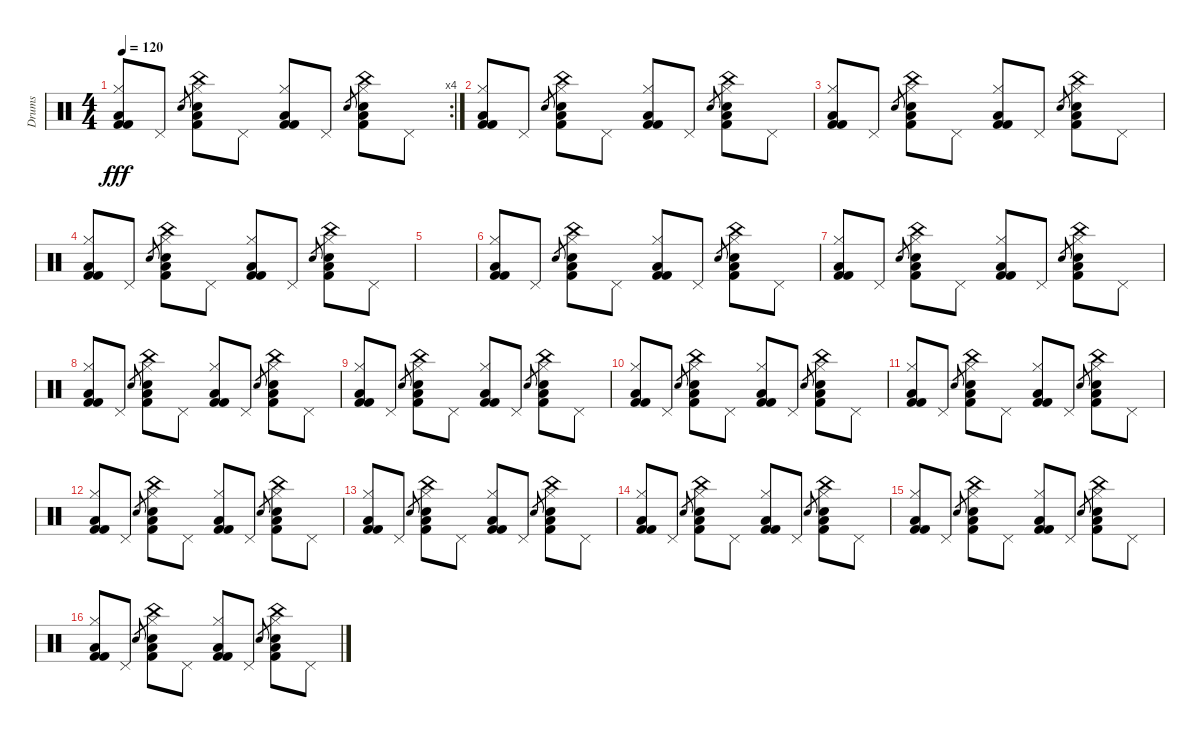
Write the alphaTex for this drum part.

\track ("Drums" "Drums") {instrument percussion}
\staff {score}
\articulation defaults
\rc 4
\ts (4 4)
\tempo 120
\clef neutral
\ks c
("Kick (hit) 2" "Hi-Hat (closed)" "Low Floor Tom (hit)" "Kick (hit) 2").8{dy fff} "Pedal Hi-Hat (hit)".8 "Hand Clap (hit)".8{gr} ("Kick (hit) 2" "Hi-Hat (closed)" "Electric Snare (hit)" "China (hit)" "Low Floor Tom (hit)").8 "Pedal Hi-Hat (hit)".8 ("Kick (hit) 2" "Hi-Hat (closed)" "Low Floor Tom (hit)" "Kick (hit) 2").8 "Pedal Hi-Hat (hit)".8 "Hand Clap (hit)".8{gr} ("Kick (hit) 2" "Hi-Hat (closed)" "Electric Snare (hit)" "China (hit)" "Low Floor Tom (hit)").8 "Pedal Hi-Hat (hit)".8 |
("Kick (hit) 2" "Hi-Hat (closed)" "Low Floor Tom (hit)" "Kick (hit) 2").8 "Pedal Hi-Hat (hit)".8 "Hand Clap (hit)".8{gr} ("Kick (hit) 2" "Hi-Hat (closed)" "Electric Snare (hit)" "China (hit)" "Low Floor Tom (hit)").8 "Pedal Hi-Hat (hit)".8 ("Kick (hit) 2" "Hi-Hat (closed)" "Low Floor Tom (hit)" "Kick (hit) 2").8 "Pedal Hi-Hat (hit)".8 "Hand Clap (hit)".8{gr} ("Kick (hit) 2" "Hi-Hat (closed)" "Electric Snare (hit)" "China (hit)" "Low Floor Tom (hit)").8 "Pedal Hi-Hat (hit)".8 |
("Kick (hit) 2" "Hi-Hat (closed)" "Low Floor Tom (hit)" "Kick (hit) 2").8 "Pedal Hi-Hat (hit)".8 "Hand Clap (hit)".8{gr} ("Kick (hit) 2" "Hi-Hat (closed)" "Electric Snare (hit)" "China (hit)" "Low Floor Tom (hit)").8 "Pedal Hi-Hat (hit)".8 ("Kick (hit) 2" "Hi-Hat (closed)" "Low Floor Tom (hit)" "Kick (hit) 2").8 "Pedal Hi-Hat (hit)".8 "Hand Clap (hit)".8{gr} ("Kick (hit) 2" "Hi-Hat (closed)" "Electric Snare (hit)" "China (hit)" "Low Floor Tom (hit)").8 "Pedal Hi-Hat (hit)".8 |
("Kick (hit) 2" "Hi-Hat (closed)" "Low Floor Tom (hit)" "Kick (hit) 2").8 "Pedal Hi-Hat (hit)".8 "Hand Clap (hit)".8{gr} ("Kick (hit) 2" "Hi-Hat (closed)" "Electric Snare (hit)" "China (hit)" "Low Floor Tom (hit)").8 "Pedal Hi-Hat (hit)".8 ("Kick (hit) 2" "Hi-Hat (closed)" "Low Floor Tom (hit)" "Kick (hit) 2").8 "Pedal Hi-Hat (hit)".8 "Hand Clap (hit)".8{gr} ("Kick (hit) 2" "Hi-Hat (closed)" "Electric Snare (hit)" "China (hit)" "Low Floor Tom (hit)").8 "Pedal Hi-Hat (hit)".8 |
|
("Kick (hit) 2" "Hi-Hat (closed)" "Low Floor Tom (hit)" "Kick (hit) 2").8 "Pedal Hi-Hat (hit)".8 "Hand Clap (hit)".8{gr} ("Kick (hit) 2" "Hi-Hat (closed)" "Electric Snare (hit)" "China (hit)" "Low Floor Tom (hit)").8 "Pedal Hi-Hat (hit)".8 ("Kick (hit) 2" "Hi-Hat (closed)" "Low Floor Tom (hit)" "Kick (hit) 2").8 "Pedal Hi-Hat (hit)".8 "Hand Clap (hit)".8{gr} ("Kick (hit) 2" "Hi-Hat (closed)" "Electric Snare (hit)" "China (hit)" "Low Floor Tom (hit)").8 "Pedal Hi-Hat (hit)".8 |
("Kick (hit) 2" "Hi-Hat (closed)" "Low Floor Tom (hit)" "Kick (hit) 2").8 "Pedal Hi-Hat (hit)".8 "Hand Clap (hit)".8{gr} ("Kick (hit) 2" "Hi-Hat (closed)" "Electric Snare (hit)" "China (hit)" "Low Floor Tom (hit)").8 "Pedal Hi-Hat (hit)".8 ("Kick (hit) 2" "Hi-Hat (closed)" "Low Floor Tom (hit)" "Kick (hit) 2").8 "Pedal Hi-Hat (hit)".8 "Hand Clap (hit)".8{gr} ("Kick (hit) 2" "Hi-Hat (closed)" "Electric Snare (hit)" "China (hit)" "Low Floor Tom (hit)").8 "Pedal Hi-Hat (hit)".8 |
("Kick (hit) 2" "Hi-Hat (closed)" "Low Floor Tom (hit)" "Kick (hit) 2").8 "Pedal Hi-Hat (hit)".8 "Hand Clap (hit)".8{gr} ("Kick (hit) 2" "Hi-Hat (closed)" "Electric Snare (hit)" "China (hit)" "Low Floor Tom (hit)").8 "Pedal Hi-Hat (hit)".8 ("Kick (hit) 2" "Hi-Hat (closed)" "Low Floor Tom (hit)" "Kick (hit) 2").8 "Pedal Hi-Hat (hit)".8 "Hand Clap (hit)".8{gr} ("Kick (hit) 2" "Hi-Hat (closed)" "Electric Snare (hit)" "China (hit)" "Low Floor Tom (hit)").8 "Pedal Hi-Hat (hit)".8 |
("Kick (hit) 2" "Hi-Hat (closed)" "Low Floor Tom (hit)" "Kick (hit) 2").8 "Pedal Hi-Hat (hit)".8 "Hand Clap (hit)".8{gr} ("Kick (hit) 2" "Hi-Hat (closed)" "Electric Snare (hit)" "China (hit)" "Low Floor Tom (hit)").8 "Pedal Hi-Hat (hit)".8 ("Kick (hit) 2" "Hi-Hat (closed)" "Low Floor Tom (hit)" "Kick (hit) 2").8 "Pedal Hi-Hat (hit)".8 "Hand Clap (hit)".8{gr} ("Kick (hit) 2" "Hi-Hat (closed)" "Electric Snare (hit)" "China (hit)" "Low Floor Tom (hit)").8 "Pedal Hi-Hat (hit)".8 |
("Kick (hit) 2" "Hi-Hat (closed)" "Low Floor Tom (hit)" "Kick (hit) 2").8 "Pedal Hi-Hat (hit)".8 "Hand Clap (hit)".8{gr} ("Kick (hit) 2" "Hi-Hat (closed)" "Electric Snare (hit)" "China (hit)" "Low Floor Tom (hit)").8 "Pedal Hi-Hat (hit)".8 ("Kick (hit) 2" "Hi-Hat (closed)" "Low Floor Tom (hit)" "Kick (hit) 2").8 "Pedal Hi-Hat (hit)".8 "Hand Clap (hit)".8{gr} ("Kick (hit) 2" "Hi-Hat (closed)" "Electric Snare (hit)" "China (hit)" "Low Floor Tom (hit)").8 "Pedal Hi-Hat (hit)".8 |
("Kick (hit) 2" "Hi-Hat (closed)" "Low Floor Tom (hit)" "Kick (hit) 2").8 "Pedal Hi-Hat (hit)".8 "Hand Clap (hit)".8{gr} ("Kick (hit) 2" "Hi-Hat (closed)" "Electric Snare (hit)" "China (hit)" "Low Floor Tom (hit)").8 "Pedal Hi-Hat (hit)".8 ("Kick (hit) 2" "Hi-Hat (closed)" "Low Floor Tom (hit)" "Kick (hit) 2").8 "Pedal Hi-Hat (hit)".8 "Hand Clap (hit)".8{gr} ("Kick (hit) 2" "Hi-Hat (closed)" "Electric Snare (hit)" "China (hit)" "Low Floor Tom (hit)").8 "Pedal Hi-Hat (hit)".8 |
("Kick (hit) 2" "Hi-Hat (closed)" "Low Floor Tom (hit)" "Kick (hit) 2").8 "Pedal Hi-Hat (hit)".8 "Hand Clap (hit)".8{gr} ("Kick (hit) 2" "Hi-Hat (closed)" "Electric Snare (hit)" "China (hit)" "Low Floor Tom (hit)").8 "Pedal Hi-Hat (hit)".8 ("Kick (hit) 2" "Hi-Hat (closed)" "Low Floor Tom (hit)" "Kick (hit) 2").8 "Pedal Hi-Hat (hit)".8 "Hand Clap (hit)".8{gr} ("Kick (hit) 2" "Hi-Hat (closed)" "Electric Snare (hit)" "China (hit)" "Low Floor Tom (hit)").8 "Pedal Hi-Hat (hit)".8 |
("Kick (hit) 2" "Hi-Hat (closed)" "Low Floor Tom (hit)" "Kick (hit) 2").8 "Pedal Hi-Hat (hit)".8 "Hand Clap (hit)".8{gr} ("Kick (hit) 2" "Hi-Hat (closed)" "Electric Snare (hit)" "China (hit)" "Low Floor Tom (hit)").8 "Pedal Hi-Hat (hit)".8 ("Kick (hit) 2" "Hi-Hat (closed)" "Low Floor Tom (hit)" "Kick (hit) 2").8 "Pedal Hi-Hat (hit)".8 "Hand Clap (hit)".8{gr} ("Kick (hit) 2" "Hi-Hat (closed)" "Electric Snare (hit)" "China (hit)" "Low Floor Tom (hit)").8 "Pedal Hi-Hat (hit)".8 |
("Kick (hit) 2" "Hi-Hat (closed)" "Low Floor Tom (hit)" "Kick (hit) 2").8 "Pedal Hi-Hat (hit)".8 "Hand Clap (hit)".8{gr} ("Kick (hit) 2" "Hi-Hat (closed)" "Electric Snare (hit)" "China (hit)" "Low Floor Tom (hit)").8 "Pedal Hi-Hat (hit)".8 ("Kick (hit) 2" "Hi-Hat (closed)" "Low Floor Tom (hit)" "Kick (hit) 2").8 "Pedal Hi-Hat (hit)".8 "Hand Clap (hit)".8{gr} ("Kick (hit) 2" "Hi-Hat (closed)" "Electric Snare (hit)" "China (hit)" "Low Floor Tom (hit)").8 "Pedal Hi-Hat (hit)".8 |
("Kick (hit) 2" "Hi-Hat (closed)" "Low Floor Tom (hit)" "Kick (hit) 2").8 "Pedal Hi-Hat (hit)".8 "Hand Clap (hit)".8{gr} ("Kick (hit) 2" "Hi-Hat (closed)" "Electric Snare (hit)" "China (hit)" "Low Floor Tom (hit)").8 "Pedal Hi-Hat (hit)".8 ("Kick (hit) 2" "Hi-Hat (closed)" "Low Floor Tom (hit)" "Kick (hit) 2").8 "Pedal Hi-Hat (hit)".8 "Hand Clap (hit)".8{gr} ("Kick (hit) 2" "Hi-Hat (closed)" "Electric Snare (hit)" "China (hit)" "Low Floor Tom (hit)").8 "Pedal Hi-Hat (hit)".8 |
("Kick (hit) 2" "Hi-Hat (closed)" "Low Floor Tom (hit)" "Kick (hit) 2").8 "Pedal Hi-Hat (hit)".8 "Hand Clap (hit)".8{gr} ("Kick (hit) 2" "Hi-Hat (closed)" "Electric Snare (hit)" "China (hit)" "Low Floor Tom (hit)").8 "Pedal Hi-Hat (hit)".8 ("Kick (hit) 2" "Hi-Hat (closed)" "Low Floor Tom (hit)" "Kick (hit) 2").8 "Pedal Hi-Hat (hit)".8 "Hand Clap (hit)".8{gr} ("Kick (hit) 2" "Hi-Hat (closed)" "Electric Snare (hit)" "China (hit)" "Low Floor Tom (hit)").8 "Pedal Hi-Hat (hit)".8
